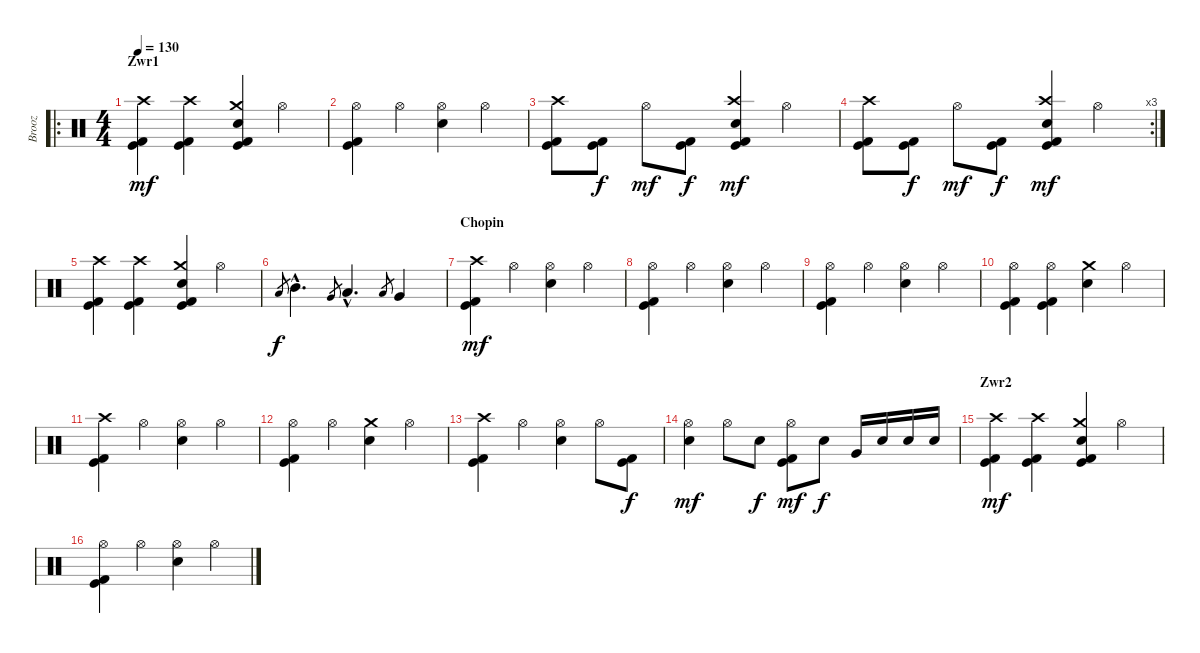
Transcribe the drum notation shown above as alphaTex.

\track ("Brooz" "Brooz") {instrument percussion}
\staff {score}
\articulation defaults
\ro
\ts (4 4)
\section ("" "Zwr1")
\tempo 130
\clef neutral
\ks c
("Kick (hit) 2" "Kick (hit)" "Crash high (hit)").4{dy mf} ("Kick (hit) 2" "Kick (hit)" "Crash high (hit)").4 ("Kick (hit) 2" "Kick (hit)" "Crash medium (hit)" "Snare (hit) 2").4 "Hi-Hat (open)".4 |
("Hi-Hat (open)" "Kick (hit) 2" "Kick (hit)").4 "Hi-Hat (open)".4 ("Hi-Hat (open)" "Snare (hit) 2").4 "Hi-Hat (open)".4 |
("Kick (hit) 2" "Kick (hit)" "Crash high (hit)").8 ("Kick (hit) 2" "Kick (hit)").8{dy f} "Hi-Hat (open)".8{dy mf} ("Kick (hit) 2" "Kick (hit)").8{dy f} ("Kick (hit) 2" "Kick (hit)" "Crash high (hit)" "Snare (hit) 2").4{dy mf} "Hi-Hat (open)".4 |
\rc 3
("Kick (hit) 2" "Kick (hit)" "Crash high (hit)").8 ("Kick (hit) 2" "Kick (hit)").8{dy f} "Hi-Hat (open)".8{dy mf} ("Kick (hit) 2" "Kick (hit)").8{dy f} ("Kick (hit) 2" "Kick (hit)" "Crash high (hit)" "Snare (hit) 2").4{dy mf} "Hi-Hat (open)".4 |
("Kick (hit) 2" "Kick (hit)" "Crash high (hit)").4 ("Kick (hit) 2" "Kick (hit)" "Crash high (hit)").4 ("Kick (hit) 2" "Kick (hit)" "Crash medium (hit)" "Snare (hit) 2").4 "Hi-Hat (open)".4 |
"Low Tom (hit)".8{gr dy f} "Mid Tom (hit)"{hac}.4{d} "Very Low Tom (hit)".8{gr} "Low Tom (hit)"{hac}.4{d} "Low Floor Tom (hit)".8{gr} "Very Low Tom (hit)".4 |
\section ("" "Chopin")
("Kick (hit) 2" "Kick (hit)" "Crash high (hit)").4{dy mf} "Hi-Hat (open)".4 ("Hi-Hat (open)" "Snare (hit) 2").4 "Hi-Hat (open)".4 |
("Hi-Hat (open)" "Kick (hit) 2" "Kick (hit)").4 "Hi-Hat (open)".4 ("Hi-Hat (open)" "Snare (hit) 2").4 "Hi-Hat (open)".4 |
("Kick (hit) 2" "Kick (hit)" "Hi-Hat (open)").4 "Hi-Hat (open)".4 ("Hi-Hat (open)" "Snare (hit) 2").4 "Hi-Hat (open)".4 |
("Hi-Hat (open)" "Kick (hit) 2" "Kick (hit)").4 ("Hi-Hat (open)" "Kick (hit) 2" "Kick (hit)").4 ("Crash medium (hit)" "Snare (hit) 2").4 "Hi-Hat (open)".4 |
("Kick (hit) 2" "Kick (hit)" "Crash high (hit)").4 "Hi-Hat (open)".4 ("Hi-Hat (open)" "Snare (hit) 2").4 "Hi-Hat (open)".4 |
("Hi-Hat (open)" "Kick (hit) 2" "Kick (hit)").4 "Hi-Hat (open)".4 ("Crash medium (hit)" "Snare (hit) 2").4 "Hi-Hat (open)".4 |
("Kick (hit) 2" "Kick (hit)" "Crash high (hit)").4 "Hi-Hat (open)".4 ("Hi-Hat (open)" "Snare (hit) 2").4 "Hi-Hat (open)".8 ("Kick (hit) 2" "Kick (hit)").8{dy f} |
("Snare (hit) 2" "Hi-Hat (open)").4{dy mf} "Hi-Hat (open)".8 "Snare (hit) 2".8{dy f} ("Kick (hit) 2" "Hi-Hat (open)" "Kick (hit)").8{dy mf} "Snare (hit) 2".8{dy f} "Very Low Tom (hit)".16 "Snare (hit) 2".16 "Snare (hit) 2".16 "Snare (hit) 2".16 |
\section ("" "Zwr2")
("Kick (hit) 2" "Kick (hit)" "Crash high (hit)").4{dy mf} ("Kick (hit) 2" "Kick (hit)" "Crash high (hit)").4 ("Kick (hit) 2" "Kick (hit)" "Crash medium (hit)" "Snare (hit) 2").4 "Hi-Hat (open)".4 |
("Hi-Hat (open)" "Kick (hit) 2" "Kick (hit)").4 "Hi-Hat (open)".4 ("Hi-Hat (open)" "Snare (hit) 2").4 "Hi-Hat (open)".4
